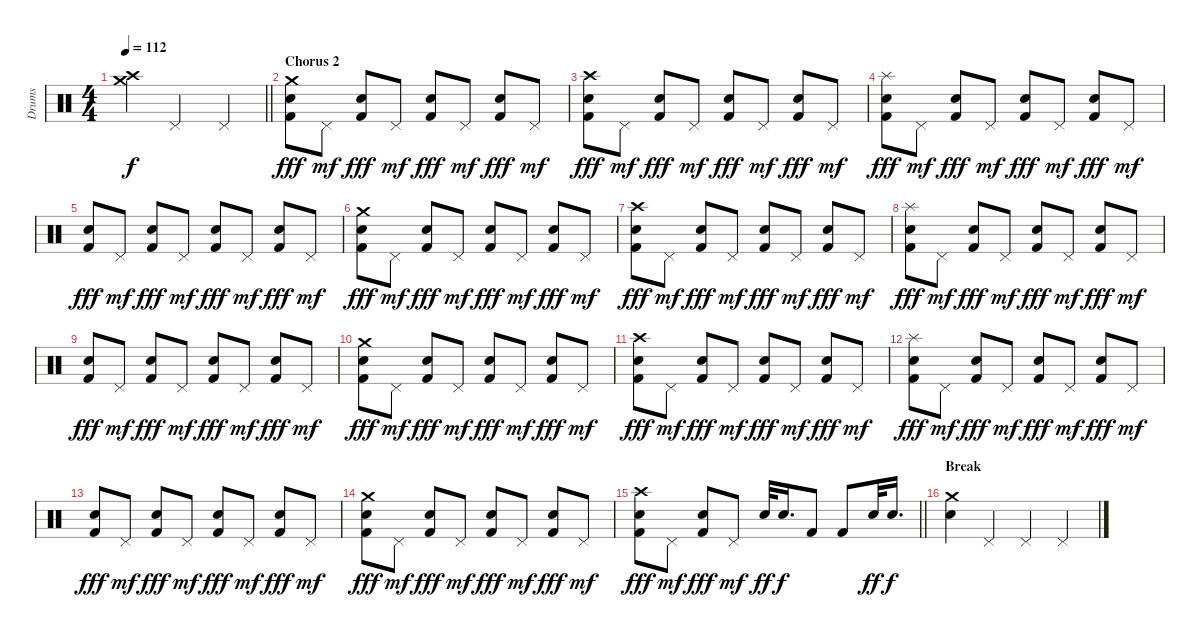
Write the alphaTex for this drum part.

\track ("Drums" "Drums") {instrument percussion}
\staff {score}
\articulation defaults
\ts (4 4)
\tempo 112
\clef neutral
\barLineRight lightlight
\ks c
("Crash high (hit)" "Crash medium (hit)").4{dy f} "Pedal Hi-Hat (hit)".2 "Pedal Hi-Hat (hit)".4 |
\section ("" "Chorus 2")
("Crash medium (hit)" "Electric Snare (hit)" "Kick (hit) 2").8{dy fff} "Pedal Hi-Hat (hit)".8{dy mf} ("Electric Snare (hit)" "Kick (hit) 2").8{dy fff} "Pedal Hi-Hat (hit)".8{dy mf} ("Electric Snare (hit)" "Kick (hit) 2").8{dy fff} "Pedal Hi-Hat (hit)".8{dy mf} ("Electric Snare (hit)" "Kick (hit) 2").8{dy fff} "Pedal Hi-Hat (hit)".8{dy mf} |
("Crash high (hit)" "Electric Snare (hit)" "Kick (hit) 2").8{dy fff} "Pedal Hi-Hat (hit)".8{dy mf} ("Electric Snare (hit)" "Kick (hit) 2").8{dy fff} "Pedal Hi-Hat (hit)".8{dy mf} ("Electric Snare (hit)" "Kick (hit) 2").8{dy fff} "Pedal Hi-Hat (hit)".8{dy mf} ("Electric Snare (hit)" "Kick (hit) 2").8{dy fff} "Pedal Hi-Hat (hit)".8{dy mf} |
("Splash (hit)" "Electric Snare (hit)" "Kick (hit) 2").8{dy fff} "Pedal Hi-Hat (hit)".8{dy mf} ("Electric Snare (hit)" "Kick (hit) 2").8{dy fff} "Pedal Hi-Hat (hit)".8{dy mf} ("Electric Snare (hit)" "Kick (hit) 2").8{dy fff} "Pedal Hi-Hat (hit)".8{dy mf} ("Electric Snare (hit)" "Kick (hit) 2").8{dy fff} "Pedal Hi-Hat (hit)".8{dy mf} |
("Electric Snare (hit)" "Kick (hit) 2").8{dy fff} "Pedal Hi-Hat (hit)".8{dy mf} ("Electric Snare (hit)" "Kick (hit) 2").8{dy fff} "Pedal Hi-Hat (hit)".8{dy mf} ("Electric Snare (hit)" "Kick (hit) 2").8{dy fff} "Pedal Hi-Hat (hit)".8{dy mf} ("Electric Snare (hit)" "Kick (hit) 2").8{dy fff} "Pedal Hi-Hat (hit)".8{dy mf} |
("Crash medium (hit)" "Electric Snare (hit)" "Kick (hit) 2").8{dy fff} "Pedal Hi-Hat (hit)".8{dy mf} ("Electric Snare (hit)" "Kick (hit) 2").8{dy fff} "Pedal Hi-Hat (hit)".8{dy mf} ("Electric Snare (hit)" "Kick (hit) 2").8{dy fff} "Pedal Hi-Hat (hit)".8{dy mf} ("Electric Snare (hit)" "Kick (hit) 2").8{dy fff} "Pedal Hi-Hat (hit)".8{dy mf} |
("Crash high (hit)" "Electric Snare (hit)" "Kick (hit) 2").8{dy fff} "Pedal Hi-Hat (hit)".8{dy mf} ("Electric Snare (hit)" "Kick (hit) 2").8{dy fff} "Pedal Hi-Hat (hit)".8{dy mf} ("Electric Snare (hit)" "Kick (hit) 2").8{dy fff} "Pedal Hi-Hat (hit)".8{dy mf} ("Electric Snare (hit)" "Kick (hit) 2").8{dy fff} "Pedal Hi-Hat (hit)".8{dy mf} |
("Splash (hit)" "Electric Snare (hit)" "Kick (hit) 2").8{dy fff} "Pedal Hi-Hat (hit)".8{dy mf} ("Electric Snare (hit)" "Kick (hit) 2").8{dy fff} "Pedal Hi-Hat (hit)".8{dy mf} ("Electric Snare (hit)" "Kick (hit) 2").8{dy fff} "Pedal Hi-Hat (hit)".8{dy mf} ("Electric Snare (hit)" "Kick (hit) 2").8{dy fff} "Pedal Hi-Hat (hit)".8{dy mf} |
("Electric Snare (hit)" "Kick (hit) 2").8{dy fff} "Pedal Hi-Hat (hit)".8{dy mf} ("Electric Snare (hit)" "Kick (hit) 2").8{dy fff} "Pedal Hi-Hat (hit)".8{dy mf} ("Electric Snare (hit)" "Kick (hit) 2").8{dy fff} "Pedal Hi-Hat (hit)".8{dy mf} ("Electric Snare (hit)" "Kick (hit) 2").8{dy fff} "Pedal Hi-Hat (hit)".8{dy mf} |
("Crash medium (hit)" "Electric Snare (hit)" "Kick (hit) 2").8{dy fff} "Pedal Hi-Hat (hit)".8{dy mf} ("Electric Snare (hit)" "Kick (hit) 2").8{dy fff} "Pedal Hi-Hat (hit)".8{dy mf} ("Electric Snare (hit)" "Kick (hit) 2").8{dy fff} "Pedal Hi-Hat (hit)".8{dy mf} ("Electric Snare (hit)" "Kick (hit) 2").8{dy fff} "Pedal Hi-Hat (hit)".8{dy mf} |
("Crash high (hit)" "Electric Snare (hit)" "Kick (hit) 2").8{dy fff} "Pedal Hi-Hat (hit)".8{dy mf} ("Electric Snare (hit)" "Kick (hit) 2").8{dy fff} "Pedal Hi-Hat (hit)".8{dy mf} ("Electric Snare (hit)" "Kick (hit) 2").8{dy fff} "Pedal Hi-Hat (hit)".8{dy mf} ("Electric Snare (hit)" "Kick (hit) 2").8{dy fff} "Pedal Hi-Hat (hit)".8{dy mf} |
("Splash (hit)" "Electric Snare (hit)" "Kick (hit) 2").8{dy fff} "Pedal Hi-Hat (hit)".8{dy mf} ("Electric Snare (hit)" "Kick (hit) 2").8{dy fff} "Pedal Hi-Hat (hit)".8{dy mf} ("Electric Snare (hit)" "Kick (hit) 2").8{dy fff} "Pedal Hi-Hat (hit)".8{dy mf} ("Electric Snare (hit)" "Kick (hit) 2").8{dy fff} "Pedal Hi-Hat (hit)".8{dy mf} |
("Electric Snare (hit)" "Kick (hit) 2").8{dy fff} "Pedal Hi-Hat (hit)".8{dy mf} ("Electric Snare (hit)" "Kick (hit) 2").8{dy fff} "Pedal Hi-Hat (hit)".8{dy mf} ("Electric Snare (hit)" "Kick (hit) 2").8{dy fff} "Pedal Hi-Hat (hit)".8{dy mf} ("Electric Snare (hit)" "Kick (hit) 2").8{dy fff} "Pedal Hi-Hat (hit)".8{dy mf} |
("Crash medium (hit)" "Electric Snare (hit)" "Kick (hit) 2").8{dy fff} "Pedal Hi-Hat (hit)".8{dy mf} ("Electric Snare (hit)" "Kick (hit) 2").8{dy fff} "Pedal Hi-Hat (hit)".8{dy mf} ("Electric Snare (hit)" "Kick (hit) 2").8{dy fff} "Pedal Hi-Hat (hit)".8{dy mf} ("Electric Snare (hit)" "Kick (hit) 2").8{dy fff} "Pedal Hi-Hat (hit)".8{dy mf} |
\barLineRight lightlight
("Electric Snare (hit)" "Crash high (hit)" "Kick (hit) 2").8{dy fff} "Pedal Hi-Hat (hit)".8{dy mf} ("Electric Snare (hit)" "Kick (hit) 2").8{dy fff} "Pedal Hi-Hat (hit)".8{dy mf} "Electric Snare (hit)".32{dy ff} "Electric Snare (hit)".16{d dy f} "Kick (hit) 2".8 "Kick (hit) 2".8 "Electric Snare (hit)".32{dy ff} "Electric Snare (hit)".16{d dy f} |
\section ("" "Break")
("Crash medium (hit)" "Electric Snare (hit)").4 "Pedal Hi-Hat (hit)".4 "Pedal Hi-Hat (hit)".4 "Pedal Hi-Hat (hit)".4
